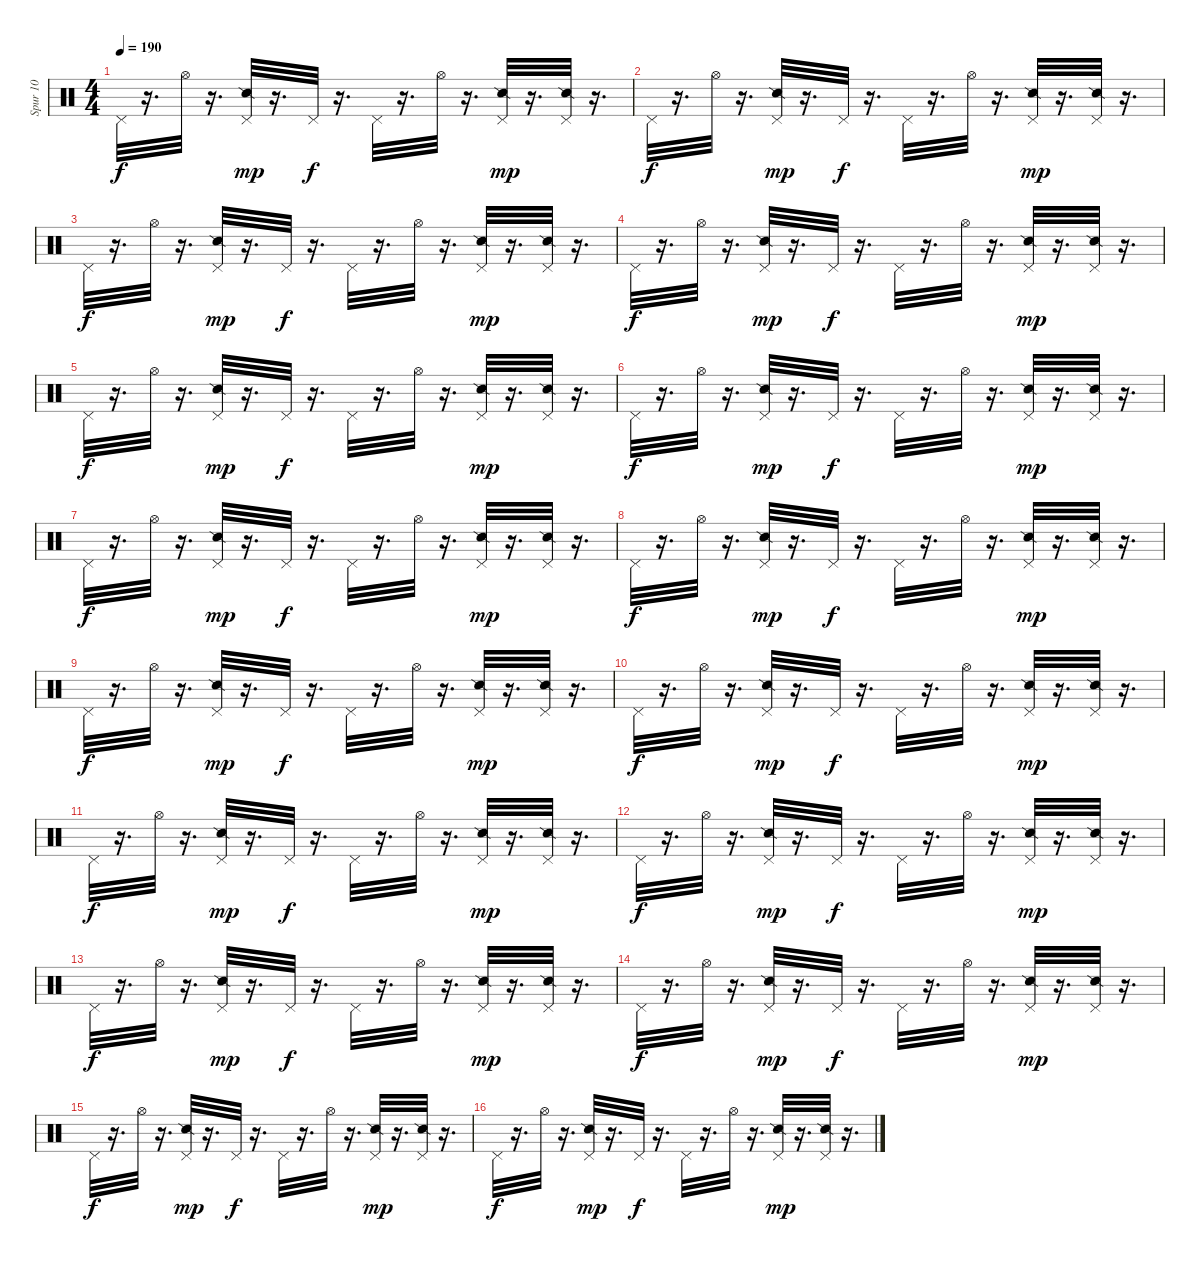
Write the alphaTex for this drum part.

\track ("Spur 10" "Spur 10") {instrument percussion}
\staff {score}
\articulation defaults
\ts (4 4)
\tempo 190
\clef neutral
\ks c "Pedal Hi-Hat (hit)".32{dy f}
r.16{d} "Hi-Hat (open)".32 r.16{d} ("Snare (side stick) 2" "Pedal Hi-Hat (hit)").32{dy mp} r.16{d} "Pedal Hi-Hat (hit)".32{dy f} r.16{d} "Pedal Hi-Hat (hit)".32 r.16{d} "Hi-Hat (open)".32 r.16{d} ("Snare (side stick) 2" "Pedal Hi-Hat (hit)").32{dy mp} r.16{d} ("Snare (side stick) 2" "Pedal Hi-Hat (hit)").32 r.16{d} |
"Pedal Hi-Hat (hit)".32{dy f} r.16{d} "Hi-Hat (open)".32 r.16{d} ("Snare (side stick) 2" "Pedal Hi-Hat (hit)").32{dy mp} r.16{d} "Pedal Hi-Hat (hit)".32{dy f} r.16{d} "Pedal Hi-Hat (hit)".32 r.16{d} "Hi-Hat (open)".32 r.16{d} ("Snare (side stick) 2" "Pedal Hi-Hat (hit)").32{dy mp} r.16{d} ("Snare (side stick) 2" "Pedal Hi-Hat (hit)").32 r.16{d} |
"Pedal Hi-Hat (hit)".32{dy f} r.16{d} "Hi-Hat (open)".32 r.16{d} ("Snare (side stick) 2" "Pedal Hi-Hat (hit)").32{dy mp} r.16{d} "Pedal Hi-Hat (hit)".32{dy f} r.16{d} "Pedal Hi-Hat (hit)".32 r.16{d} "Hi-Hat (open)".32 r.16{d} ("Snare (side stick) 2" "Pedal Hi-Hat (hit)").32{dy mp} r.16{d} ("Snare (side stick) 2" "Pedal Hi-Hat (hit)").32 r.16{d} |
"Pedal Hi-Hat (hit)".32{dy f} r.16{d} "Hi-Hat (open)".32 r.16{d} ("Snare (side stick) 2" "Pedal Hi-Hat (hit)").32{dy mp} r.16{d} "Pedal Hi-Hat (hit)".32{dy f} r.16{d} "Pedal Hi-Hat (hit)".32 r.16{d} "Hi-Hat (open)".32 r.16{d} ("Snare (side stick) 2" "Pedal Hi-Hat (hit)").32{dy mp} r.16{d} ("Snare (side stick) 2" "Pedal Hi-Hat (hit)").32 r.16{d} |
"Pedal Hi-Hat (hit)".32{dy f} r.16{d} "Hi-Hat (open)".32 r.16{d} ("Snare (side stick) 2" "Pedal Hi-Hat (hit)").32{dy mp} r.16{d} "Pedal Hi-Hat (hit)".32{dy f} r.16{d} "Pedal Hi-Hat (hit)".32 r.16{d} "Hi-Hat (open)".32 r.16{d} ("Snare (side stick) 2" "Pedal Hi-Hat (hit)").32{dy mp} r.16{d} ("Snare (side stick) 2" "Pedal Hi-Hat (hit)").32 r.16{d} |
"Pedal Hi-Hat (hit)".32{dy f} r.16{d} "Hi-Hat (open)".32 r.16{d} ("Snare (side stick) 2" "Pedal Hi-Hat (hit)").32{dy mp} r.16{d} "Pedal Hi-Hat (hit)".32{dy f} r.16{d} "Pedal Hi-Hat (hit)".32 r.16{d} "Hi-Hat (open)".32 r.16{d} ("Snare (side stick) 2" "Pedal Hi-Hat (hit)").32{dy mp} r.16{d} ("Snare (side stick) 2" "Pedal Hi-Hat (hit)").32 r.16{d} |
"Pedal Hi-Hat (hit)".32{dy f} r.16{d} "Hi-Hat (open)".32 r.16{d} ("Snare (side stick) 2" "Pedal Hi-Hat (hit)").32{dy mp} r.16{d} "Pedal Hi-Hat (hit)".32{dy f} r.16{d} "Pedal Hi-Hat (hit)".32 r.16{d} "Hi-Hat (open)".32 r.16{d} ("Snare (side stick) 2" "Pedal Hi-Hat (hit)").32{dy mp} r.16{d} ("Snare (side stick) 2" "Pedal Hi-Hat (hit)").32 r.16{d} |
"Pedal Hi-Hat (hit)".32{dy f} r.16{d} "Hi-Hat (open)".32 r.16{d} ("Snare (side stick) 2" "Pedal Hi-Hat (hit)").32{dy mp} r.16{d} "Pedal Hi-Hat (hit)".32{dy f} r.16{d} "Pedal Hi-Hat (hit)".32 r.16{d} "Hi-Hat (open)".32 r.16{d} ("Snare (side stick) 2" "Pedal Hi-Hat (hit)").32{dy mp} r.16{d} ("Snare (side stick) 2" "Pedal Hi-Hat (hit)").32 r.16{d} |
"Pedal Hi-Hat (hit)".32{dy f} r.16{d} "Hi-Hat (open)".32 r.16{d} ("Snare (side stick) 2" "Pedal Hi-Hat (hit)").32{dy mp} r.16{d} "Pedal Hi-Hat (hit)".32{dy f} r.16{d} "Pedal Hi-Hat (hit)".32 r.16{d} "Hi-Hat (open)".32 r.16{d} ("Snare (side stick) 2" "Pedal Hi-Hat (hit)").32{dy mp} r.16{d} ("Snare (side stick) 2" "Pedal Hi-Hat (hit)").32 r.16{d} |
"Pedal Hi-Hat (hit)".32{dy f} r.16{d} "Hi-Hat (open)".32 r.16{d} ("Snare (side stick) 2" "Pedal Hi-Hat (hit)").32{dy mp} r.16{d} "Pedal Hi-Hat (hit)".32{dy f} r.16{d} "Pedal Hi-Hat (hit)".32 r.16{d} "Hi-Hat (open)".32 r.16{d} ("Snare (side stick) 2" "Pedal Hi-Hat (hit)").32{dy mp} r.16{d} ("Snare (side stick) 2" "Pedal Hi-Hat (hit)").32 r.16{d} |
"Pedal Hi-Hat (hit)".32{dy f} r.16{d} "Hi-Hat (open)".32 r.16{d} ("Snare (side stick) 2" "Pedal Hi-Hat (hit)").32{dy mp} r.16{d} "Pedal Hi-Hat (hit)".32{dy f} r.16{d} "Pedal Hi-Hat (hit)".32 r.16{d} "Hi-Hat (open)".32 r.16{d} ("Snare (side stick) 2" "Pedal Hi-Hat (hit)").32{dy mp} r.16{d} ("Snare (side stick) 2" "Pedal Hi-Hat (hit)").32 r.16{d} |
"Pedal Hi-Hat (hit)".32{dy f} r.16{d} "Hi-Hat (open)".32 r.16{d} ("Snare (side stick) 2" "Pedal Hi-Hat (hit)").32{dy mp} r.16{d} "Pedal Hi-Hat (hit)".32{dy f} r.16{d} "Pedal Hi-Hat (hit)".32 r.16{d} "Hi-Hat (open)".32 r.16{d} ("Snare (side stick) 2" "Pedal Hi-Hat (hit)").32{dy mp} r.16{d} ("Snare (side stick) 2" "Pedal Hi-Hat (hit)").32 r.16{d} |
"Pedal Hi-Hat (hit)".32{dy f} r.16{d} "Hi-Hat (open)".32 r.16{d} ("Snare (side stick) 2" "Pedal Hi-Hat (hit)").32{dy mp} r.16{d} "Pedal Hi-Hat (hit)".32{dy f} r.16{d} "Pedal Hi-Hat (hit)".32 r.16{d} "Hi-Hat (open)".32 r.16{d} ("Snare (side stick) 2" "Pedal Hi-Hat (hit)").32{dy mp} r.16{d} ("Snare (side stick) 2" "Pedal Hi-Hat (hit)").32 r.16{d} |
"Pedal Hi-Hat (hit)".32{dy f} r.16{d} "Hi-Hat (open)".32 r.16{d} ("Snare (side stick) 2" "Pedal Hi-Hat (hit)").32{dy mp} r.16{d} "Pedal Hi-Hat (hit)".32{dy f} r.16{d} "Pedal Hi-Hat (hit)".32 r.16{d} "Hi-Hat (open)".32 r.16{d} ("Snare (side stick) 2" "Pedal Hi-Hat (hit)").32{dy mp} r.16{d} ("Snare (side stick) 2" "Pedal Hi-Hat (hit)").32 r.16{d} |
"Pedal Hi-Hat (hit)".32{dy f} r.16{d} "Hi-Hat (open)".32 r.16{d} ("Snare (side stick) 2" "Pedal Hi-Hat (hit)").32{dy mp} r.16{d} "Pedal Hi-Hat (hit)".32{dy f} r.16{d} "Pedal Hi-Hat (hit)".32 r.16{d} "Hi-Hat (open)".32 r.16{d} ("Snare (side stick) 2" "Pedal Hi-Hat (hit)").32{dy mp} r.16{d} ("Snare (side stick) 2" "Pedal Hi-Hat (hit)").32 r.16{d} |
"Pedal Hi-Hat (hit)".32{dy f} r.16{d} "Hi-Hat (open)".32 r.16{d} ("Snare (side stick) 2" "Pedal Hi-Hat (hit)").32{dy mp} r.16{d} "Pedal Hi-Hat (hit)".32{dy f} r.16{d} "Pedal Hi-Hat (hit)".32 r.16{d} "Hi-Hat (open)".32 r.16{d} ("Snare (side stick) 2" "Pedal Hi-Hat (hit)").32{dy mp} r.16{d} ("Snare (side stick) 2" "Pedal Hi-Hat (hit)").32 r.16{d}
